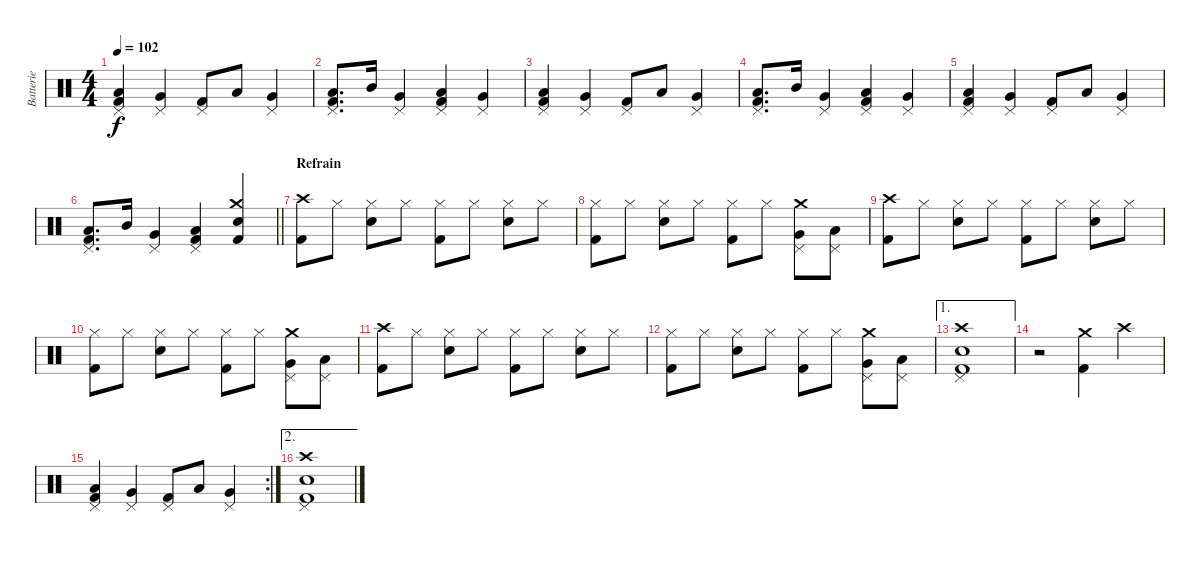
\track ("Batterie" "Batterie") {instrument percussion}
\staff {score}
\articulation defaults
\ts (4 4)
\tempo 102
\clef neutral
\ks c
("Pedal Hi-Hat (hit)" "Low Tom (hit)" "Kick (hit) 2").4{dy f} ("Pedal Hi-Hat (hit)" "Very Low Tom (hit)").4 ("Pedal Hi-Hat (hit)" "Kick (hit) 2").8 "Low Floor Tom (hit)".8 ("Pedal Hi-Hat (hit)" "Very Low Tom (hit)").4 |
("Pedal Hi-Hat (hit)" "Low Tom (hit)" "Kick (hit) 2").8{d} "Mid Tom (hit)".16 ("Pedal Hi-Hat (hit)" "Very Low Tom (hit)").4 ("Pedal Hi-Hat (hit)" "Low Floor Tom (hit)" "Kick (hit) 2").4 ("Pedal Hi-Hat (hit)" "Very Low Tom (hit)").4 |
("Pedal Hi-Hat (hit)" "Low Tom (hit)" "Kick (hit) 2").4 ("Pedal Hi-Hat (hit)" "Very Low Tom (hit)").4 ("Pedal Hi-Hat (hit)" "Kick (hit) 2").8 "Low Floor Tom (hit)".8 ("Pedal Hi-Hat (hit)" "Very Low Tom (hit)").4 |
("Pedal Hi-Hat (hit)" "Low Tom (hit)" "Kick (hit) 2").8{d} "Mid Tom (hit)".16 ("Pedal Hi-Hat (hit)" "Very Low Tom (hit)").4 ("Pedal Hi-Hat (hit)" "Low Floor Tom (hit)" "Kick (hit) 2").4 ("Pedal Hi-Hat (hit)" "Very Low Tom (hit)").4 |
("Pedal Hi-Hat (hit)" "Low Tom (hit)" "Kick (hit) 2").4 ("Pedal Hi-Hat (hit)" "Very Low Tom (hit)").4 ("Pedal Hi-Hat (hit)" "Kick (hit) 2").8 "Low Floor Tom (hit)".8 ("Pedal Hi-Hat (hit)" "Very Low Tom (hit)").4 |
\barLineRight lightlight
("Pedal Hi-Hat (hit)" "Low Tom (hit)" "Kick (hit) 2").8{d} "Mid Tom (hit)".16 ("Pedal Hi-Hat (hit)" "Very Low Tom (hit)").4 ("Pedal Hi-Hat (hit)" "Low Floor Tom (hit)" "Kick (hit) 2").4 ("Crash medium (hit)" "Snare (hit) 2" "Kick (hit) 2").4 |
\section ("" "Refrain")
("Crash high (hit)" "Kick (hit) 2").8 "Hi-Hat (closed)".8 ("Hi-Hat (closed)" "Snare (hit) 2").8 "Hi-Hat (closed)".8 ("Hi-Hat (closed)" "Kick (hit) 2").8 "Hi-Hat (closed)".8 ("Hi-Hat (closed)" "Snare (hit) 2").8 "Hi-Hat (closed)".8 |
("Hi-Hat (closed)" "Kick (hit) 2").8 "Hi-Hat (closed)".8 ("Hi-Hat (closed)" "Snare (hit) 2").8 "Hi-Hat (closed)".8 ("Hi-Hat (closed)" "Kick (hit) 2").8 "Hi-Hat (closed)".8 ("Pedal Hi-Hat (hit)" "Crash medium (hit)" "Very Low Tom (hit)").8 ("Pedal Hi-Hat (hit)" "Low Floor Tom (hit)").8 |
("Crash high (hit)" "Kick (hit) 2").8 "Hi-Hat (closed)".8 ("Hi-Hat (closed)" "Snare (hit) 2").8 "Hi-Hat (closed)".8 ("Hi-Hat (closed)" "Kick (hit) 2").8 "Hi-Hat (closed)".8 ("Hi-Hat (closed)" "Snare (hit) 2").8 "Hi-Hat (closed)".8 |
("Hi-Hat (closed)" "Kick (hit) 2").8 "Hi-Hat (closed)".8 ("Hi-Hat (closed)" "Snare (hit) 2").8 "Hi-Hat (closed)".8 ("Hi-Hat (closed)" "Kick (hit) 2").8 "Hi-Hat (closed)".8 ("Pedal Hi-Hat (hit)" "Crash medium (hit)" "Very Low Tom (hit)").8 ("Pedal Hi-Hat (hit)" "Low Floor Tom (hit)").8 |
("Crash high (hit)" "Kick (hit) 2").8 "Hi-Hat (closed)".8 ("Hi-Hat (closed)" "Snare (hit) 2").8 "Hi-Hat (closed)".8 ("Hi-Hat (closed)" "Kick (hit) 2").8 "Hi-Hat (closed)".8 ("Hi-Hat (closed)" "Snare (hit) 2").8 "Hi-Hat (closed)".8 |
("Hi-Hat (closed)" "Kick (hit) 2").8 "Hi-Hat (closed)".8 ("Hi-Hat (closed)" "Snare (hit) 2").8 "Hi-Hat (closed)".8 ("Hi-Hat (closed)" "Kick (hit) 2").8 "Hi-Hat (closed)".8 ("Pedal Hi-Hat (hit)" "Crash medium (hit)" "Very Low Tom (hit)").8 ("Pedal Hi-Hat (hit)" "Low Floor Tom (hit)").8 |
\ae 1
("Pedal Hi-Hat (hit)" "Crash high (hit)" "Snare (hit) 2" "Kick (hit) 2").1 |
r.2 ("Crash medium (hit)" "Kick (hit) 2").4 "Crash high (hit)".4 |
\rc 2
("Pedal Hi-Hat (hit)" "Low Tom (hit)" "Kick (hit) 2").4 ("Pedal Hi-Hat (hit)" "Very Low Tom (hit)").4 ("Pedal Hi-Hat (hit)" "Kick (hit) 2").8 "Low Floor Tom (hit)".8 ("Pedal Hi-Hat (hit)" "Very Low Tom (hit)").4 |
\ae 2
("Pedal Hi-Hat (hit)" "Crash high (hit)" "Snare (hit) 2" "Kick (hit) 2").1
